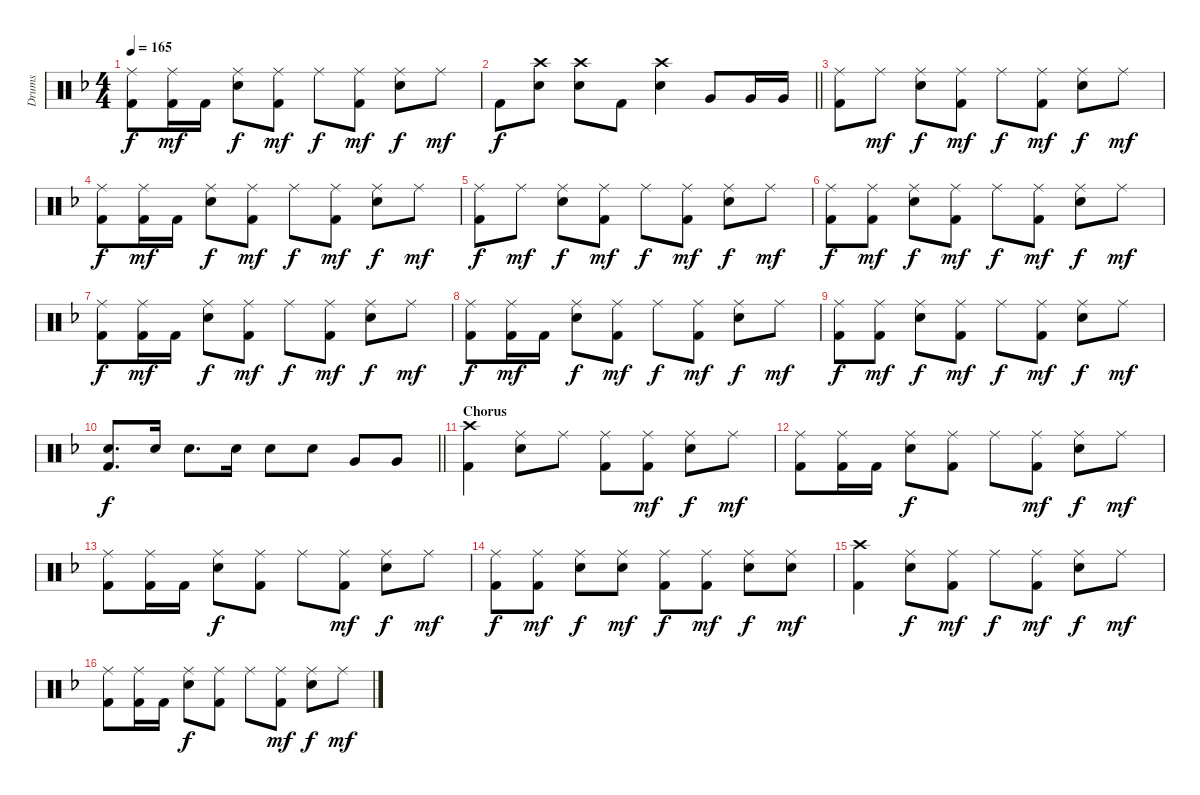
\track ("Drums" "Drums") {instrument percussion}
\staff {score}
\articulation defaults
\ts (4 4)
\tempo 165
\clef neutral
\ks f
("Ride (middle)" "Kick (hit) 2").8{dy f} ("Ride (middle)" "Kick (hit) 2").16{dy mf} "Kick (hit) 2".16 ("Ride (middle)" "Electric Snare (hit)").8{dy f} ("Ride (middle)" "Kick (hit) 2").8{dy mf} "Ride (middle)".8{dy f} ("Ride (middle)" "Kick (hit) 2").8{dy mf} ("Ride (middle)" "Electric Snare (hit)").8{dy f} "Ride (middle)".8{dy mf} |
\barLineRight lightlight "Kick (hit) 2".8{dy f}
("Crash high (hit)" "Electric Snare (hit)").8 ("Crash high (hit)" "Electric Snare (hit)").8 "Kick (hit) 2".8 ("Crash high (hit)" "Electric Snare (hit)").4 "Very Low Tom (hit)".8 "Very Low Tom (hit)".16 "Very Low Tom (hit)".16 |
("Ride (middle)" "Kick (hit) 2").8 "Ride (middle)".8{dy mf} ("Ride (middle)" "Electric Snare (hit)").8{dy f} ("Ride (middle)" "Kick (hit) 2").8{dy mf} "Ride (middle)".8{dy f} ("Ride (middle)" "Kick (hit) 2").8{dy mf} ("Ride (middle)" "Electric Snare (hit)").8{dy f} "Ride (middle)".8{dy mf} |
("Ride (middle)" "Kick (hit) 2").8{dy f} ("Ride (middle)" "Kick (hit) 2").16{dy mf} "Kick (hit) 2".16 ("Ride (middle)" "Electric Snare (hit)").8{dy f} ("Ride (middle)" "Kick (hit) 2").8{dy mf} "Ride (middle)".8{dy f} ("Ride (middle)" "Kick (hit) 2").8{dy mf} ("Ride (middle)" "Electric Snare (hit)").8{dy f} "Ride (middle)".8{dy mf} |
("Ride (middle)" "Kick (hit) 2").8{dy f} "Ride (middle)".8{dy mf} ("Ride (middle)" "Electric Snare (hit)").8{dy f} ("Ride (middle)" "Kick (hit) 2").8{dy mf} "Ride (middle)".8{dy f} ("Ride (middle)" "Kick (hit) 2").8{dy mf} ("Ride (middle)" "Electric Snare (hit)").8{dy f} "Ride (middle)".8{dy mf} |
("Ride (middle)" "Kick (hit) 2").8{dy f} ("Ride (middle)" "Kick (hit) 2").8{dy mf} ("Ride (middle)" "Electric Snare (hit)").8{dy f} ("Ride (middle)" "Kick (hit) 2").8{dy mf} "Ride (middle)".8{dy f} ("Ride (middle)" "Kick (hit) 2").8{dy mf} ("Ride (middle)" "Electric Snare (hit)").8{dy f} "Ride (middle)".8{dy mf} |
("Ride (middle)" "Kick (hit) 2").8{dy f} ("Ride (middle)" "Kick (hit) 2").16{dy mf} "Kick (hit) 2".16 ("Ride (middle)" "Electric Snare (hit)").8{dy f} ("Ride (middle)" "Kick (hit) 2").8{dy mf} "Ride (middle)".8{dy f} ("Ride (middle)" "Kick (hit) 2").8{dy mf} ("Ride (middle)" "Electric Snare (hit)").8{dy f} "Ride (middle)".8{dy mf} |
("Ride (middle)" "Kick (hit) 2").8{dy f} ("Ride (middle)" "Kick (hit) 2").16{dy mf} "Kick (hit) 2".16 ("Ride (middle)" "Electric Snare (hit)").8{dy f} ("Ride (middle)" "Kick (hit) 2").8{dy mf} "Ride (middle)".8{dy f} ("Ride (middle)" "Kick (hit) 2").8{dy mf} ("Ride (middle)" "Electric Snare (hit)").8{dy f} "Ride (middle)".8{dy mf} |
("Ride (middle)" "Kick (hit) 2").8{dy f} ("Ride (middle)" "Kick (hit) 2").8{dy mf} ("Ride (middle)" "Electric Snare (hit)").8{dy f} ("Ride (middle)" "Kick (hit) 2").8{dy mf} "Ride (middle)".8{dy f} ("Ride (middle)" "Kick (hit) 2").8{dy mf} ("Ride (middle)" "Electric Snare (hit)").8{dy f} "Ride (middle)".8{dy mf} |
\barLineRight lightlight
("Electric Snare (hit)" "Kick (hit) 2").8{d dy f} "Electric Snare (hit)".16 "Electric Snare (hit)".8{d} "Electric Snare (hit)".16 "Electric Snare (hit)".8 "Electric Snare (hit)".8 "Very Low Tom (hit)".8 "Very Low Tom (hit)".8 |
\section ("" "Chorus")
("Crash high (hit)" "Kick (hit) 2").4 ("Ride (middle)" "Electric Snare (hit)").8 "Ride (middle)".8 ("Ride (middle)" "Kick (hit) 2").8 ("Ride (middle)" "Kick (hit) 2").8{dy mf} ("Ride (middle)" "Electric Snare (hit)").8{dy f} "Ride (middle)".8{dy mf} |
("Ride (middle)" "Kick (hit) 2").8 ("Ride (middle)" "Kick (hit) 2").16 "Kick (hit) 2".16 ("Ride (middle)" "Electric Snare (hit)").8{dy f} ("Ride (middle)" "Kick (hit) 2").8 "Ride (middle)".8 ("Ride (middle)" "Kick (hit) 2").8{dy mf} ("Ride (middle)" "Electric Snare (hit)").8{dy f} "Ride (middle)".8{dy mf} |
("Ride (middle)" "Kick (hit) 2").8 ("Ride (middle)" "Kick (hit) 2").16 "Kick (hit) 2".16 ("Ride (middle)" "Electric Snare (hit)").8{dy f} ("Ride (middle)" "Kick (hit) 2").8 "Ride (middle)".8 ("Ride (middle)" "Kick (hit) 2").8{dy mf} ("Ride (middle)" "Electric Snare (hit)").8{dy f} "Ride (middle)".8{dy mf} |
("Ride (middle)" "Kick (hit) 2").8{dy f} ("Ride (middle)" "Kick (hit) 2").8{dy mf} ("Ride (middle)" "Electric Snare (hit)").8{dy f} ("Ride (middle)" "Electric Snare (hit)").8{dy mf} ("Ride (middle)" "Kick (hit) 2").8{dy f} ("Ride (middle)" "Kick (hit) 2").8{dy mf} ("Ride (middle)" "Electric Snare (hit)").8{dy f} ("Ride (middle)" "Electric Snare (hit)").8{dy mf} |
("Crash high (hit)" "Kick (hit) 2").4 ("Ride (middle)" "Electric Snare (hit)").8{dy f} ("Ride (middle)" "Kick (hit) 2").8{dy mf} "Ride (middle)".8{dy f} ("Ride (middle)" "Kick (hit) 2").8{dy mf} ("Ride (middle)" "Electric Snare (hit)").8{dy f} "Ride (middle)".8{dy mf} |
("Ride (middle)" "Kick (hit) 2").8 ("Ride (middle)" "Kick (hit) 2").16 "Kick (hit) 2".16 ("Ride (middle)" "Electric Snare (hit)").8{dy f} ("Ride (middle)" "Kick (hit) 2").8 "Ride (middle)".8 ("Ride (middle)" "Kick (hit) 2").8{dy mf} ("Ride (middle)" "Electric Snare (hit)").8{dy f} "Ride (middle)".8{dy mf}
